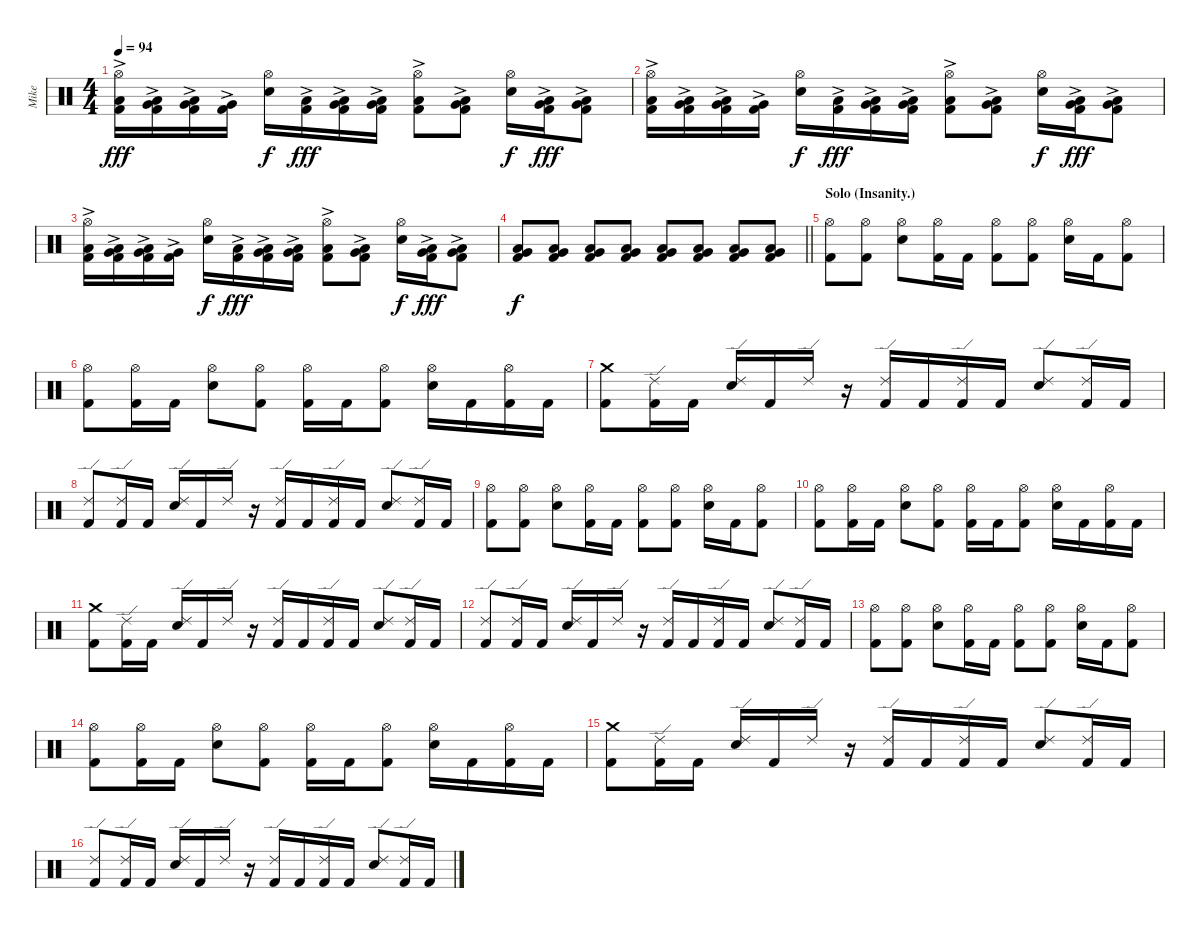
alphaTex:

\track ("Mike" "Mike") {instrument percussion}
\staff {score}
\articulation defaults
\ts (4 4)
\tempo 94
\clef neutral
\ks c
("Hi-Hat (open)" "Low Tom (hit)"{ac} "Kick (hit) 2").16{dy fff} ("Low Tom (hit)"{ac} "Very Low Tom (hit)"{ac} "Kick (hit) 2").16 ("Very Low Tom (hit)"{ac} "Low Floor Tom (hit)"{ac} "Kick (hit) 2").16 ("Very Low Tom (hit)"{ac} "Kick (hit) 2").16 ("Hi-Hat (open)" "Snare (hit) 2").16{dy f} ("Low Tom (hit)"{ac} "Kick (hit) 2").16{dy fff} ("Low Tom (hit)"{ac} "Very Low Tom (hit)"{ac} "Kick (hit) 2").16 ("Very Low Tom (hit)"{ac} "Low Floor Tom (hit)"{ac} "Kick (hit) 2").16 ("Hi-Hat (open)" "Low Floor Tom (hit)"{ac} "Kick (hit) 2").8 ("Very Low Tom (hit)"{ac} "Low Floor Tom (hit)"{ac} "Kick (hit) 2").8 ("Hi-Hat (open)" "Snare (hit) 2").16{dy f} ("Very Low Tom (hit)"{ac} "Low Floor Tom (hit)"{ac} "Kick (hit) 2").16{dy fff} ("Very Low Tom (hit)"{ac} "Low Tom (hit)"{ac} "Kick (hit) 2").8 |
("Hi-Hat (open)" "Low Tom (hit)"{ac} "Kick (hit) 2").16 ("Low Tom (hit)"{ac} "Very Low Tom (hit)"{ac} "Kick (hit) 2").16 ("Very Low Tom (hit)"{ac} "Low Floor Tom (hit)"{ac} "Kick (hit) 2").16 ("Very Low Tom (hit)"{ac} "Kick (hit) 2").16 ("Hi-Hat (open)" "Snare (hit) 2").16{dy f} ("Low Tom (hit)"{ac} "Kick (hit) 2").16{dy fff} ("Low Tom (hit)"{ac} "Very Low Tom (hit)"{ac} "Kick (hit) 2").16 ("Very Low Tom (hit)"{ac} "Low Floor Tom (hit)"{ac} "Kick (hit) 2").16 ("Hi-Hat (open)" "Low Floor Tom (hit)"{ac} "Kick (hit) 2").8 ("Very Low Tom (hit)"{ac} "Low Floor Tom (hit)"{ac} "Kick (hit) 2").8 ("Hi-Hat (open)" "Snare (hit) 2").16{dy f} ("Very Low Tom (hit)"{ac} "Low Floor Tom (hit)"{ac} "Kick (hit) 2").16{dy fff} ("Very Low Tom (hit)"{ac} "Low Tom (hit)"{ac} "Kick (hit) 2").8 |
("Hi-Hat (open)" "Low Tom (hit)"{ac} "Kick (hit) 2").16 ("Low Tom (hit)"{ac} "Very Low Tom (hit)"{ac} "Kick (hit) 2").16 ("Very Low Tom (hit)"{ac} "Low Floor Tom (hit)"{ac} "Kick (hit) 2").16 ("Very Low Tom (hit)"{ac} "Kick (hit) 2").16 ("Hi-Hat (open)" "Snare (hit) 2").16{dy f} ("Low Tom (hit)"{ac} "Kick (hit) 2").16{dy fff} ("Low Tom (hit)"{ac} "Very Low Tom (hit)"{ac} "Kick (hit) 2").16 ("Very Low Tom (hit)"{ac} "Low Floor Tom (hit)"{ac} "Kick (hit) 2").16 ("Hi-Hat (open)" "Low Floor Tom (hit)"{ac} "Kick (hit) 2").8 ("Very Low Tom (hit)"{ac} "Low Floor Tom (hit)"{ac} "Kick (hit) 2").8 ("Hi-Hat (open)" "Snare (hit) 2").16{dy f} ("Very Low Tom (hit)"{ac} "Low Floor Tom (hit)"{ac} "Kick (hit) 2").16{dy fff} ("Very Low Tom (hit)"{ac} "Low Tom (hit)"{ac} "Kick (hit) 2").8 |
\barLineRight lightlight
("Low Tom (hit)" "Very Low Tom (hit)" "Kick (hit) 2").8{dy f} ("Low Tom (hit)" "Very Low Tom (hit)" "Kick (hit) 2").8 ("Low Tom (hit)" "Very Low Tom (hit)" "Kick (hit) 2").8 ("Low Tom (hit)" "Very Low Tom (hit)" "Kick (hit) 2").8 ("Low Tom (hit)" "Very Low Tom (hit)" "Kick (hit) 2").8 ("Low Tom (hit)" "Very Low Tom (hit)" "Kick (hit) 2").8 ("Low Tom (hit)" "Very Low Tom (hit)" "Kick (hit) 2").8 ("Low Tom (hit)" "Very Low Tom (hit)" "Kick (hit) 2").8 |
\section ("" "Solo (Insanity.)")
("Hi-Hat (open)" "Kick (hit) 2").8 ("Hi-Hat (open)" "Kick (hit) 2").8 ("Hi-Hat (open)" "Snare (hit) 2").8 ("Hi-Hat (open)" "Kick (hit) 2").16 "Kick (hit) 2".16 ("Hi-Hat (open)" "Kick (hit) 2").8 ("Hi-Hat (open)" "Kick (hit) 2").8 ("Hi-Hat (open)" "Snare (hit) 2").16 "Kick (hit) 2".16 ("Hi-Hat (open)" "Kick (hit) 2").8 |
("Hi-Hat (open)" "Kick (hit) 2").8 ("Hi-Hat (open)" "Kick (hit) 2").16 "Kick (hit) 2".16 ("Hi-Hat (open)" "Snare (hit) 2").8 ("Hi-Hat (open)" "Kick (hit) 2").8 ("Hi-Hat (open)" "Kick (hit) 2").16 "Kick (hit) 2".16 ("Hi-Hat (open)" "Kick (hit) 2").8 ("Hi-Hat (open)" "Snare (hit) 2").16 "Kick (hit) 2".16 ("Hi-Hat (open)" "Kick (hit) 2").16 "Kick (hit) 2".16 |
("Crash medium (hit)" "Kick (hit) 2").8 ("Ride (edge) 2" "Kick (hit) 2").16 "Kick (hit) 2".16 ("Ride (edge) 2" "Snare (hit) 2").16 "Kick (hit) 2".16 "Ride (edge) 2".16 r.16 ("Ride (edge) 2" "Kick (hit) 2").16 "Kick (hit) 2".16 ("Ride (edge) 2" "Kick (hit) 2").16 "Kick (hit) 2".16 ("Ride (edge) 2" "Snare (hit) 2").8 ("Ride (edge) 2" "Kick (hit) 2").16 "Kick (hit) 2".16 |
("Ride (edge) 2" "Kick (hit) 2").8 ("Ride (edge) 2" "Kick (hit) 2").16 "Kick (hit) 2".16 ("Ride (edge) 2" "Snare (hit) 2").16 "Kick (hit) 2".16 "Ride (edge) 2".16 r.16 ("Ride (edge) 2" "Kick (hit) 2").16 "Kick (hit) 2".16 ("Ride (edge) 2" "Kick (hit) 2").16 "Kick (hit) 2".16 ("Ride (edge) 2" "Snare (hit) 2").8 ("Ride (edge) 2" "Kick (hit) 2").16 "Kick (hit) 2".16 |
("Hi-Hat (open)" "Kick (hit) 2").8 ("Hi-Hat (open)" "Kick (hit) 2").8 ("Hi-Hat (open)" "Snare (hit) 2").8 ("Hi-Hat (open)" "Kick (hit) 2").16 "Kick (hit) 2".16 ("Hi-Hat (open)" "Kick (hit) 2").8 ("Hi-Hat (open)" "Kick (hit) 2").8 ("Hi-Hat (open)" "Snare (hit) 2").16 "Kick (hit) 2".16 ("Hi-Hat (open)" "Kick (hit) 2").8 |
("Hi-Hat (open)" "Kick (hit) 2").8 ("Hi-Hat (open)" "Kick (hit) 2").16 "Kick (hit) 2".16 ("Hi-Hat (open)" "Snare (hit) 2").8 ("Hi-Hat (open)" "Kick (hit) 2").8 ("Hi-Hat (open)" "Kick (hit) 2").16 "Kick (hit) 2".16 ("Hi-Hat (open)" "Kick (hit) 2").8 ("Hi-Hat (open)" "Snare (hit) 2").16 "Kick (hit) 2".16 ("Hi-Hat (open)" "Kick (hit) 2").16 "Kick (hit) 2".16 |
("Crash medium (hit)" "Kick (hit) 2").8 ("Ride (edge) 2" "Kick (hit) 2").16 "Kick (hit) 2".16 ("Ride (edge) 2" "Snare (hit) 2").16 "Kick (hit) 2".16 "Ride (edge) 2".16 r.16 ("Ride (edge) 2" "Kick (hit) 2").16 "Kick (hit) 2".16 ("Ride (edge) 2" "Kick (hit) 2").16 "Kick (hit) 2".16 ("Ride (edge) 2" "Snare (hit) 2").8 ("Ride (edge) 2" "Kick (hit) 2").16 "Kick (hit) 2".16 |
("Ride (edge) 2" "Kick (hit) 2").8 ("Ride (edge) 2" "Kick (hit) 2").16 "Kick (hit) 2".16 ("Ride (edge) 2" "Snare (hit) 2").16 "Kick (hit) 2".16 "Ride (edge) 2".16 r.16 ("Ride (edge) 2" "Kick (hit) 2").16 "Kick (hit) 2".16 ("Ride (edge) 2" "Kick (hit) 2").16 "Kick (hit) 2".16 ("Ride (edge) 2" "Snare (hit) 2").8 ("Ride (edge) 2" "Kick (hit) 2").16 "Kick (hit) 2".16 |
("Hi-Hat (open)" "Kick (hit) 2").8 ("Hi-Hat (open)" "Kick (hit) 2").8 ("Hi-Hat (open)" "Snare (hit) 2").8 ("Hi-Hat (open)" "Kick (hit) 2").16 "Kick (hit) 2".16 ("Hi-Hat (open)" "Kick (hit) 2").8 ("Hi-Hat (open)" "Kick (hit) 2").8 ("Hi-Hat (open)" "Snare (hit) 2").16 "Kick (hit) 2".16 ("Hi-Hat (open)" "Kick (hit) 2").8 |
("Hi-Hat (open)" "Kick (hit) 2").8 ("Hi-Hat (open)" "Kick (hit) 2").16 "Kick (hit) 2".16 ("Hi-Hat (open)" "Snare (hit) 2").8 ("Hi-Hat (open)" "Kick (hit) 2").8 ("Hi-Hat (open)" "Kick (hit) 2").16 "Kick (hit) 2".16 ("Hi-Hat (open)" "Kick (hit) 2").8 ("Hi-Hat (open)" "Snare (hit) 2").16 "Kick (hit) 2".16 ("Hi-Hat (open)" "Kick (hit) 2").16 "Kick (hit) 2".16 |
("Crash medium (hit)" "Kick (hit) 2").8 ("Ride (edge) 2" "Kick (hit) 2").16 "Kick (hit) 2".16 ("Ride (edge) 2" "Snare (hit) 2").16 "Kick (hit) 2".16 "Ride (edge) 2".16 r.16 ("Ride (edge) 2" "Kick (hit) 2").16 "Kick (hit) 2".16 ("Ride (edge) 2" "Kick (hit) 2").16 "Kick (hit) 2".16 ("Ride (edge) 2" "Snare (hit) 2").8 ("Ride (edge) 2" "Kick (hit) 2").16 "Kick (hit) 2".16 |
("Ride (edge) 2" "Kick (hit) 2").8 ("Ride (edge) 2" "Kick (hit) 2").16 "Kick (hit) 2".16 ("Ride (edge) 2" "Snare (hit) 2").16 "Kick (hit) 2".16 "Ride (edge) 2".16 r.16 ("Ride (edge) 2" "Kick (hit) 2").16 "Kick (hit) 2".16 ("Ride (edge) 2" "Kick (hit) 2").16 "Kick (hit) 2".16 ("Ride (edge) 2" "Snare (hit) 2").8 ("Ride (edge) 2" "Kick (hit) 2").16 "Kick (hit) 2".16
